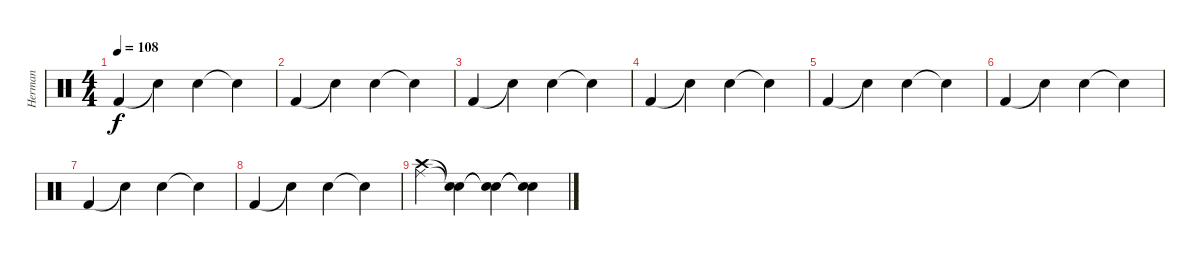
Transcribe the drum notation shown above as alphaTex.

\track ("Herman" "Herman") {instrument percussion}
\staff {score}
\articulation defaults
\ts (4 4)
\tempo 108
\clef neutral
\ks c "Kick (hit) 2".4{dy f} "Snare (hit)"{t}.4 "Snare (hit) 2".4 "Snare (hit)"{t}.4
|
"Kick (hit) 2".4 "Snare (hit)"{t}.4 "Snare (hit) 2".4 "Snare (hit)"{t}.4 |
"Kick (hit) 2".4 "Snare (hit)"{t}.4 "Snare (hit) 2".4 "Snare (hit)"{t}.4 |
"Kick (hit) 2".4 "Snare (hit)"{t}.4 "Snare (hit) 2".4 "Snare (hit)"{t}.4 |
"Kick (hit) 2".4 "Snare (hit)"{t}.4 "Snare (hit) 2".4 "Snare (hit)"{t}.4 |
"Kick (hit) 2".4 "Snare (hit)"{t}.4 "Snare (hit) 2".4 "Snare (hit)"{t}.4 |
"Kick (hit) 2".4 "Snare (hit)"{t}.4 "Snare (hit) 2".4 "Snare (hit)"{t}.4 |
"Kick (hit) 2".4 "Snare (hit)"{t}.4 "Snare (hit) 2".4 "Snare (hit)"{t}.4 |
("Ride (middle)" "Crash high (hit)").4 ("Snare (hit)"{t} "Snare (hit)"{t}).4 ("Snare (hit)"{t} "Snare (hit)"{t}).4 ("Snare (hit)"{t} "Snare (hit)"{t}).4
